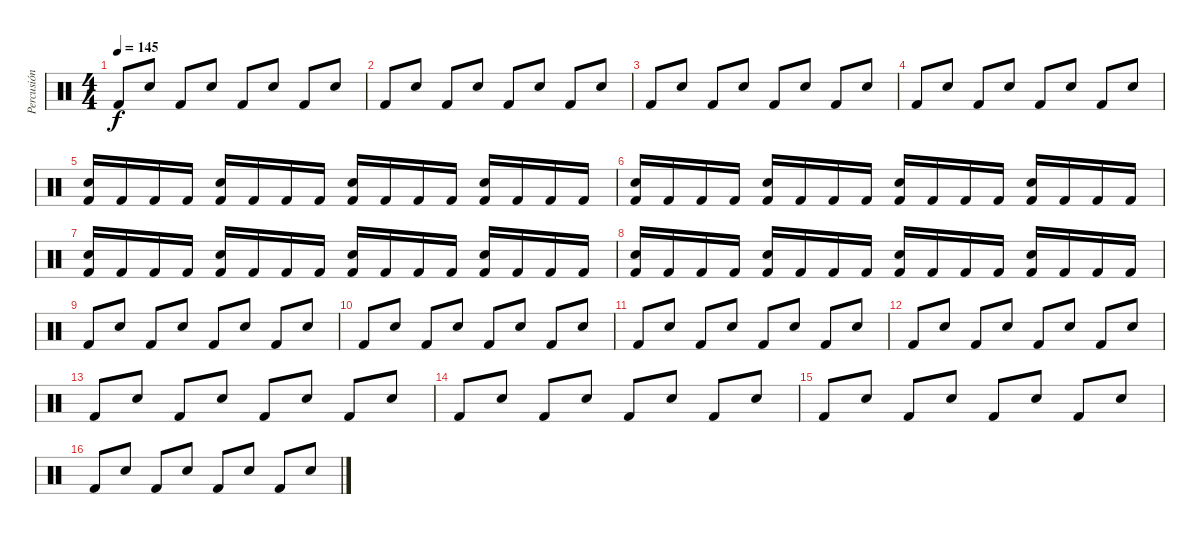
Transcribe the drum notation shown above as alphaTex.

\track ("Percusión" "Percusión") {instrument percussion}
\staff {score}
\articulation defaults
\ts (4 4)
\tempo 145
\clef neutral
\ks c "Kick (hit) 2".8{dy f} "Snare (hit) 2".8 "Kick (hit) 2".8 "Snare (hit) 2".8 "Kick (hit) 2".8 "Snare (hit) 2".8 "Kick (hit) 2".8 "Snare (hit) 2".8
|
"Kick (hit) 2".8 "Snare (hit) 2".8 "Kick (hit) 2".8 "Snare (hit) 2".8 "Kick (hit) 2".8 "Snare (hit) 2".8 "Kick (hit) 2".8 "Snare (hit) 2".8 |
"Kick (hit) 2".8 "Snare (hit) 2".8 "Kick (hit) 2".8 "Snare (hit) 2".8 "Kick (hit) 2".8 "Snare (hit) 2".8 "Kick (hit) 2".8 "Snare (hit) 2".8 |
"Kick (hit) 2".8 "Snare (hit) 2".8 "Kick (hit) 2".8 "Snare (hit) 2".8 "Kick (hit) 2".8 "Snare (hit) 2".8 "Kick (hit) 2".8 "Snare (hit) 2".8 |
("Snare (hit) 2" "Kick (hit) 2").16 "Kick (hit) 2".16 "Kick (hit) 2".16 "Kick (hit) 2".16 ("Snare (hit) 2" "Kick (hit) 2").16 "Kick (hit) 2".16 "Kick (hit) 2".16 "Kick (hit) 2".16 ("Snare (hit) 2" "Kick (hit) 2").16 "Kick (hit) 2".16 "Kick (hit) 2".16 "Kick (hit) 2".16 ("Snare (hit) 2" "Kick (hit) 2").16 "Kick (hit) 2".16 "Kick (hit) 2".16 "Kick (hit) 2".16 |
("Snare (hit) 2" "Kick (hit) 2").16 "Kick (hit) 2".16 "Kick (hit) 2".16 "Kick (hit) 2".16 ("Snare (hit) 2" "Kick (hit) 2").16 "Kick (hit) 2".16 "Kick (hit) 2".16 "Kick (hit) 2".16 ("Snare (hit) 2" "Kick (hit) 2").16 "Kick (hit) 2".16 "Kick (hit) 2".16 "Kick (hit) 2".16 ("Snare (hit) 2" "Kick (hit) 2").16 "Kick (hit) 2".16 "Kick (hit) 2".16 "Kick (hit) 2".16 |
("Snare (hit) 2" "Kick (hit) 2").16 "Kick (hit) 2".16 "Kick (hit) 2".16 "Kick (hit) 2".16 ("Snare (hit) 2" "Kick (hit) 2").16 "Kick (hit) 2".16 "Kick (hit) 2".16 "Kick (hit) 2".16 ("Snare (hit) 2" "Kick (hit) 2").16 "Kick (hit) 2".16 "Kick (hit) 2".16 "Kick (hit) 2".16 ("Snare (hit) 2" "Kick (hit) 2").16 "Kick (hit) 2".16 "Kick (hit) 2".16 "Kick (hit) 2".16 |
("Snare (hit) 2" "Kick (hit) 2").16 "Kick (hit) 2".16 "Kick (hit) 2".16 "Kick (hit) 2".16 ("Snare (hit) 2" "Kick (hit) 2").16 "Kick (hit) 2".16 "Kick (hit) 2".16 "Kick (hit) 2".16 ("Snare (hit) 2" "Kick (hit) 2").16 "Kick (hit) 2".16 "Kick (hit) 2".16 "Kick (hit) 2".16 ("Snare (hit) 2" "Kick (hit) 2").16 "Kick (hit) 2".16 "Kick (hit) 2".16 "Kick (hit) 2".16 |
"Kick (hit) 2".8 "Snare (hit) 2".8 "Kick (hit) 2".8 "Snare (hit) 2".8 "Kick (hit) 2".8 "Snare (hit) 2".8 "Kick (hit) 2".8 "Snare (hit) 2".8 |
"Kick (hit) 2".8 "Snare (hit) 2".8 "Kick (hit) 2".8 "Snare (hit) 2".8 "Kick (hit) 2".8 "Snare (hit) 2".8 "Kick (hit) 2".8 "Snare (hit) 2".8 |
"Kick (hit) 2".8 "Snare (hit) 2".8 "Kick (hit) 2".8 "Snare (hit) 2".8 "Kick (hit) 2".8 "Snare (hit) 2".8 "Kick (hit) 2".8 "Snare (hit) 2".8 |
"Kick (hit) 2".8 "Snare (hit) 2".8 "Kick (hit) 2".8 "Snare (hit) 2".8 "Kick (hit) 2".8 "Snare (hit) 2".8 "Kick (hit) 2".8 "Snare (hit) 2".8 |
"Kick (hit) 2".8 "Snare (hit) 2".8 "Kick (hit) 2".8 "Snare (hit) 2".8 "Kick (hit) 2".8 "Snare (hit) 2".8 "Kick (hit) 2".8 "Snare (hit) 2".8 |
"Kick (hit) 2".8 "Snare (hit) 2".8 "Kick (hit) 2".8 "Snare (hit) 2".8 "Kick (hit) 2".8 "Snare (hit) 2".8 "Kick (hit) 2".8 "Snare (hit) 2".8 |
"Kick (hit) 2".8 "Snare (hit) 2".8 "Kick (hit) 2".8 "Snare (hit) 2".8 "Kick (hit) 2".8 "Snare (hit) 2".8 "Kick (hit) 2".8 "Snare (hit) 2".8 |
"Kick (hit) 2".8 "Snare (hit) 2".8 "Kick (hit) 2".8 "Snare (hit) 2".8 "Kick (hit) 2".8 "Snare (hit) 2".8 "Kick (hit) 2".8 "Snare (hit) 2".8
